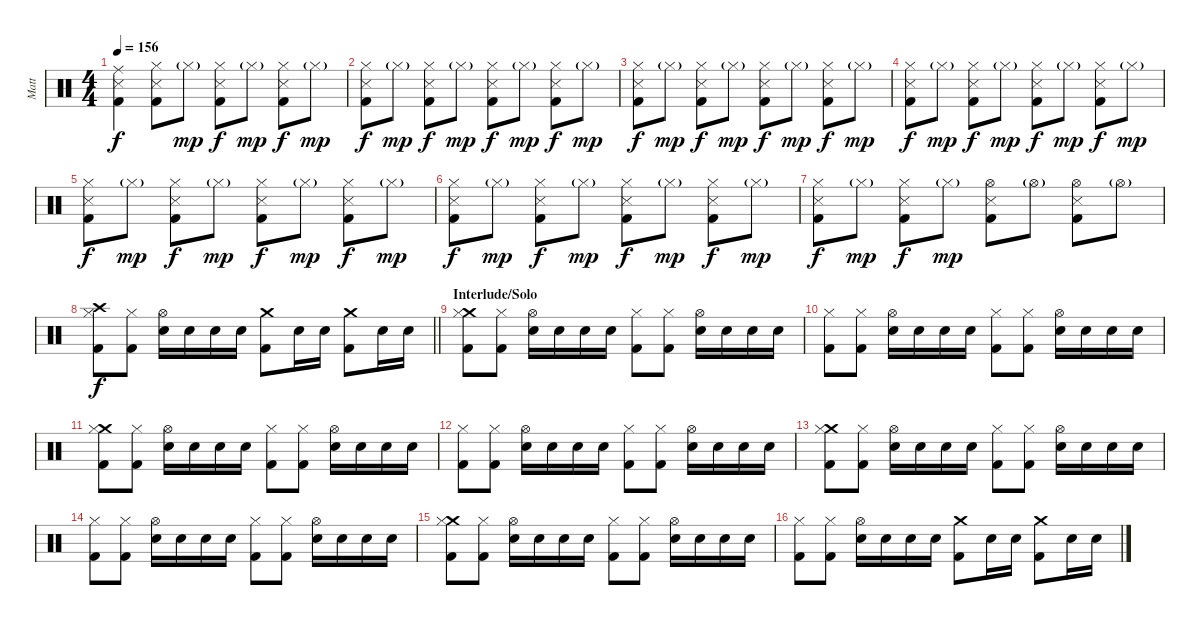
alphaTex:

\track ("Matt" "Matt") {instrument percussion}
\staff {score}
\articulation defaults
\ts (4 4)
\tempo 156
\clef neutral
\ks c
("Ride (middle)" "Snare (side stick) 3" "Kick (hit) 2").4{dy f} ("Hi-Hat (closed)" "Snare (side stick) 3" "Kick (hit) 2").8 "Hi-Hat (closed)"{g}.8{dy mp} ("Hi-Hat (closed)" "Snare (side stick) 3" "Kick (hit) 2").8{dy f} "Hi-Hat (closed)"{g}.8{dy mp} ("Hi-Hat (closed)" "Snare (side stick) 3" "Kick (hit) 2").8{dy f} "Hi-Hat (closed)"{g}.8{dy mp} |
("Hi-Hat (closed)" "Snare (side stick) 3" "Kick (hit) 2").8{dy f} "Hi-Hat (closed)"{g}.8{dy mp} ("Hi-Hat (closed)" "Snare (side stick) 3" "Kick (hit) 2").8{dy f} "Hi-Hat (closed)"{g}.8{dy mp} ("Hi-Hat (closed)" "Snare (side stick) 3" "Kick (hit) 2").8{dy f} "Hi-Hat (closed)"{g}.8{dy mp} ("Hi-Hat (closed)" "Snare (side stick) 3" "Kick (hit) 2").8{dy f} "Hi-Hat (closed)"{g}.8{dy mp} |
("Hi-Hat (closed)" "Snare (side stick) 3" "Kick (hit) 2").8{dy f} "Hi-Hat (closed)"{g}.8{dy mp} ("Hi-Hat (closed)" "Snare (side stick) 3" "Kick (hit) 2").8{dy f} "Hi-Hat (closed)"{g}.8{dy mp} ("Hi-Hat (closed)" "Snare (side stick) 3" "Kick (hit) 2").8{dy f} "Hi-Hat (closed)"{g}.8{dy mp} ("Hi-Hat (closed)" "Snare (side stick) 3" "Kick (hit) 2").8{dy f} "Hi-Hat (closed)"{g}.8{dy mp} |
("Hi-Hat (closed)" "Snare (side stick) 3" "Kick (hit) 2").8{dy f} "Hi-Hat (closed)"{g}.8{dy mp} ("Hi-Hat (closed)" "Snare (side stick) 3" "Kick (hit) 2").8{dy f} "Hi-Hat (closed)"{g}.8{dy mp} ("Hi-Hat (closed)" "Snare (side stick) 3" "Kick (hit) 2").8{dy f} "Hi-Hat (closed)"{g}.8{dy mp} ("Hi-Hat (closed)" "Snare (side stick) 3" "Kick (hit) 2").8{dy f} "Hi-Hat (closed)"{g}.8{dy mp} |
("Hi-Hat (closed)" "Snare (side stick) 3" "Kick (hit) 2").8{dy f} "Hi-Hat (closed)"{g}.8{dy mp} ("Hi-Hat (closed)" "Snare (side stick) 3" "Kick (hit) 2").8{dy f} "Hi-Hat (closed)"{g}.8{dy mp} ("Hi-Hat (closed)" "Snare (side stick) 3" "Kick (hit) 2").8{dy f} "Hi-Hat (closed)"{g}.8{dy mp} ("Hi-Hat (closed)" "Snare (side stick) 3" "Kick (hit) 2").8{dy f} "Hi-Hat (closed)"{g}.8{dy mp} |
("Hi-Hat (closed)" "Snare (side stick) 3" "Kick (hit) 2").8{dy f} "Hi-Hat (closed)"{g}.8{dy mp} ("Hi-Hat (closed)" "Snare (side stick) 3" "Kick (hit) 2").8{dy f} "Hi-Hat (closed)"{g}.8{dy mp} ("Hi-Hat (closed)" "Snare (side stick) 3" "Kick (hit) 2").8{dy f} "Hi-Hat (closed)"{g}.8{dy mp} ("Hi-Hat (closed)" "Snare (side stick) 3" "Kick (hit) 2").8{dy f} "Hi-Hat (closed)"{g}.8{dy mp} |
("Hi-Hat (closed)" "Snare (side stick) 3" "Kick (hit) 2").8{dy f} "Hi-Hat (closed)"{g}.8{dy mp} ("Hi-Hat (closed)" "Snare (side stick) 3" "Kick (hit) 2").8{dy f} "Hi-Hat (closed)"{g}.8{dy mp} ("Hi-Hat (open)" "Snare (side stick) 3" "Kick (hit) 2").8 "Hi-Hat (open)"{g}.8 ("Hi-Hat (open)" "Snare (side stick) 3" "Kick (hit) 2").8 "Hi-Hat (open)"{g}.8 |
\barLineRight lightlight
("Crash high (hit)" "Hi-Hat (closed)" "Kick (hit) 2").8{dy f} ("Hi-Hat (closed)" "Kick (hit) 2").8 ("Hi-Hat (open)" "Electric Snare (hit)").16 "Electric Snare (hit)".16 "Electric Snare (hit)".16 "Electric Snare (hit)".16 ("Crash medium (hit)" "Kick (hit) 2").8 "Electric Snare (hit)".16 "Electric Snare (hit)".16 ("Crash medium (hit)" "Kick (hit) 2").8 "Electric Snare (hit)".16 "Electric Snare (hit)".16 |
\section ("" "Interlude/Solo")
("Crash medium (hit)" "Hi-Hat (closed)" "Kick (hit) 2").8 ("Hi-Hat (closed)" "Kick (hit) 2").8 ("Hi-Hat (open)" "Electric Snare (hit)").16 "Electric Snare (hit)".16 "Electric Snare (hit)".16 "Electric Snare (hit)".16 ("Hi-Hat (closed)" "Kick (hit) 2").8 ("Hi-Hat (closed)" "Kick (hit) 2").8 ("Hi-Hat (open)" "Electric Snare (hit)").16 "Electric Snare (hit)".16 "Electric Snare (hit)".16 "Electric Snare (hit)".16 |
("Hi-Hat (closed)" "Kick (hit) 2").8 ("Hi-Hat (closed)" "Kick (hit) 2").8 ("Hi-Hat (open)" "Electric Snare (hit)").16 "Electric Snare (hit)".16 "Electric Snare (hit)".16 "Electric Snare (hit)".16 ("Hi-Hat (closed)" "Kick (hit) 2").8 ("Hi-Hat (closed)" "Kick (hit) 2").8 ("Hi-Hat (open)" "Electric Snare (hit)").16 "Electric Snare (hit)".16 "Electric Snare (hit)".16 "Electric Snare (hit)".16 |
("Crash medium (hit)" "Hi-Hat (closed)" "Kick (hit) 2").8 ("Hi-Hat (closed)" "Kick (hit) 2").8 ("Hi-Hat (open)" "Electric Snare (hit)").16 "Electric Snare (hit)".16 "Electric Snare (hit)".16 "Electric Snare (hit)".16 ("Hi-Hat (closed)" "Kick (hit) 2").8 ("Hi-Hat (closed)" "Kick (hit) 2").8 ("Hi-Hat (open)" "Electric Snare (hit)").16 "Electric Snare (hit)".16 "Electric Snare (hit)".16 "Electric Snare (hit)".16 |
("Hi-Hat (closed)" "Kick (hit) 2").8 ("Hi-Hat (closed)" "Kick (hit) 2").8 ("Hi-Hat (open)" "Electric Snare (hit)").16 "Electric Snare (hit)".16 "Electric Snare (hit)".16 "Electric Snare (hit)".16 ("Hi-Hat (closed)" "Kick (hit) 2").8 ("Hi-Hat (closed)" "Kick (hit) 2").8 ("Hi-Hat (open)" "Electric Snare (hit)").16 "Electric Snare (hit)".16 "Electric Snare (hit)".16 "Electric Snare (hit)".16 |
("Crash medium (hit)" "Hi-Hat (closed)" "Kick (hit) 2").8 ("Hi-Hat (closed)" "Kick (hit) 2").8 ("Hi-Hat (open)" "Electric Snare (hit)").16 "Electric Snare (hit)".16 "Electric Snare (hit)".16 "Electric Snare (hit)".16 ("Hi-Hat (closed)" "Kick (hit) 2").8 ("Hi-Hat (closed)" "Kick (hit) 2").8 ("Hi-Hat (open)" "Electric Snare (hit)").16 "Electric Snare (hit)".16 "Electric Snare (hit)".16 "Electric Snare (hit)".16 |
("Hi-Hat (closed)" "Kick (hit) 2").8 ("Hi-Hat (closed)" "Kick (hit) 2").8 ("Hi-Hat (open)" "Electric Snare (hit)").16 "Electric Snare (hit)".16 "Electric Snare (hit)".16 "Electric Snare (hit)".16 ("Hi-Hat (closed)" "Kick (hit) 2").8 ("Hi-Hat (closed)" "Kick (hit) 2").8 ("Hi-Hat (open)" "Electric Snare (hit)").16 "Electric Snare (hit)".16 "Electric Snare (hit)".16 "Electric Snare (hit)".16 |
("Crash medium (hit)" "Hi-Hat (closed)" "Kick (hit) 2").8 ("Hi-Hat (closed)" "Kick (hit) 2").8 ("Hi-Hat (open)" "Electric Snare (hit)").16 "Electric Snare (hit)".16 "Electric Snare (hit)".16 "Electric Snare (hit)".16 ("Hi-Hat (closed)" "Kick (hit) 2").8 ("Hi-Hat (closed)" "Kick (hit) 2").8 ("Hi-Hat (open)" "Electric Snare (hit)").16 "Electric Snare (hit)".16 "Electric Snare (hit)".16 "Electric Snare (hit)".16 |
("Hi-Hat (closed)" "Kick (hit) 2").8 ("Hi-Hat (closed)" "Kick (hit) 2").8 ("Hi-Hat (open)" "Electric Snare (hit)").16 "Electric Snare (hit)".16 "Electric Snare (hit)".16 "Electric Snare (hit)".16 ("Crash medium (hit)" "Kick (hit) 2").8 "Electric Snare (hit)".16 "Electric Snare (hit)".16 ("Crash medium (hit)" "Kick (hit) 2").8 "Electric Snare (hit)".16 "Electric Snare (hit)".16
